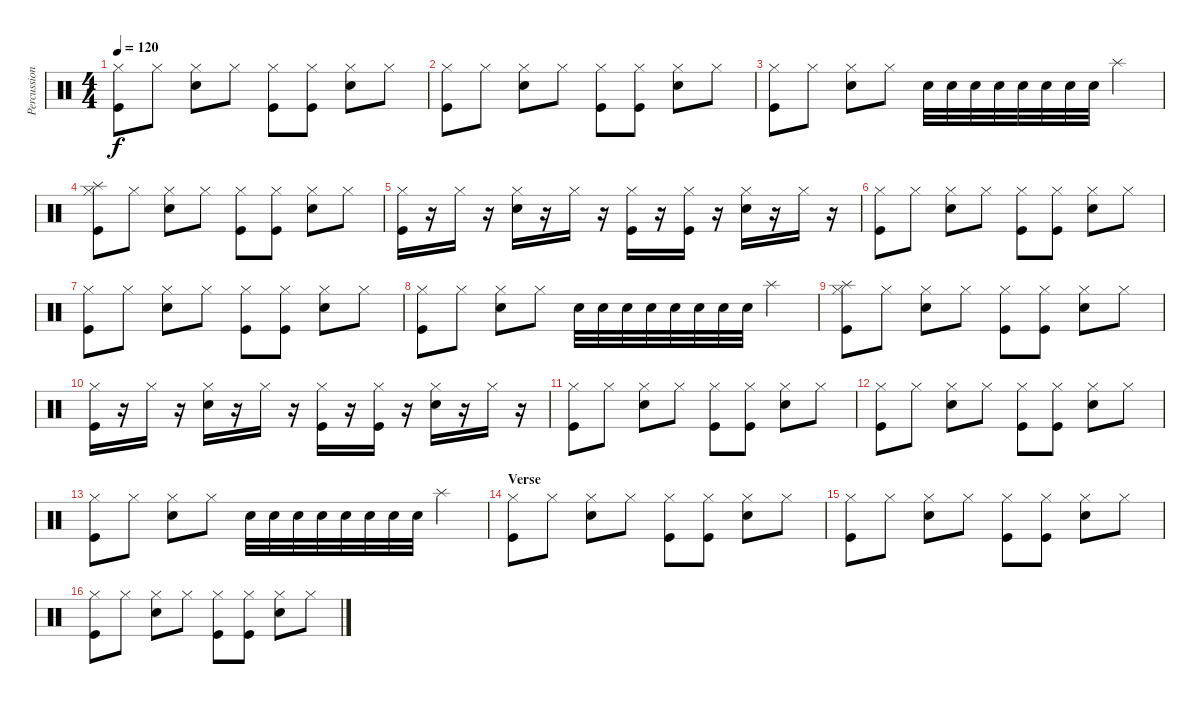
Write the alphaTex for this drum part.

\track ("Percussion" "Percussion") {instrument percussion}
\staff {score}
\articulation defaults
\ts (4 4)
\tempo 120
\clef neutral
\ks c
("Hi-Hat (closed)" "Kick (hit)").8{dy f} "Hi-Hat (closed)".8 ("Hi-Hat (closed)" "Snare (hit) 2").8 "Hi-Hat (closed)".8 ("Hi-Hat (closed)" "Kick (hit)").8 ("Hi-Hat (closed)" "Kick (hit)").8 ("Hi-Hat (closed)" "Snare (hit) 2").8 "Hi-Hat (closed)".8 |
("Hi-Hat (closed)" "Kick (hit)").8 "Hi-Hat (closed)".8 ("Hi-Hat (closed)" "Snare (hit) 2").8 "Hi-Hat (closed)".8 ("Hi-Hat (closed)" "Kick (hit)").8 ("Hi-Hat (closed)" "Kick (hit)").8 ("Hi-Hat (closed)" "Snare (hit) 2").8 "Hi-Hat (closed)".8 |
("Hi-Hat (closed)" "Kick (hit)").8 "Hi-Hat (closed)".8 ("Hi-Hat (closed)" "Snare (hit) 2").8 "Hi-Hat (closed)".8 "Snare (hit) 2".32 "Snare (hit) 2".32 "Snare (hit) 2".32 "Snare (hit) 2".32 "Snare (hit) 2".32 "Snare (hit) 2".32 "Snare (hit) 2".32 "Snare (hit) 2".32 "Splash (hit)".4 |
("Hi-Hat (closed)" "Kick (hit)" "Splash (hit)").8 "Hi-Hat (closed)".8 ("Hi-Hat (closed)" "Snare (hit) 2").8 "Hi-Hat (closed)".8 ("Hi-Hat (closed)" "Kick (hit)").8 ("Hi-Hat (closed)" "Kick (hit)").8 ("Hi-Hat (closed)" "Snare (hit) 2").8 "Hi-Hat (closed)".8 |
("Hi-Hat (closed)" "Kick (hit)").16 r.16 "Hi-Hat (closed)".16 r.16 ("Hi-Hat (closed)" "Snare (hit) 2").16 r.16 "Hi-Hat (closed)".16 r.16 ("Hi-Hat (closed)" "Kick (hit)").16 r.16 ("Hi-Hat (closed)" "Kick (hit)").16 r.16 ("Hi-Hat (closed)" "Snare (hit) 2").16 r.16 "Hi-Hat (closed)".16 r.16 |
("Hi-Hat (closed)" "Kick (hit)").8 "Hi-Hat (closed)".8 ("Hi-Hat (closed)" "Snare (hit) 2").8 "Hi-Hat (closed)".8 ("Hi-Hat (closed)" "Kick (hit)").8 ("Hi-Hat (closed)" "Kick (hit)").8 ("Hi-Hat (closed)" "Snare (hit) 2").8 "Hi-Hat (closed)".8 |
("Hi-Hat (closed)" "Kick (hit)").8 "Hi-Hat (closed)".8 ("Hi-Hat (closed)" "Snare (hit) 2").8 "Hi-Hat (closed)".8 ("Hi-Hat (closed)" "Kick (hit)").8 ("Hi-Hat (closed)" "Kick (hit)").8 ("Hi-Hat (closed)" "Snare (hit) 2").8 "Hi-Hat (closed)".8 |
("Hi-Hat (closed)" "Kick (hit)").8 "Hi-Hat (closed)".8 ("Hi-Hat (closed)" "Snare (hit) 2").8 "Hi-Hat (closed)".8 "Snare (hit) 2".32 "Snare (hit) 2".32 "Snare (hit) 2".32 "Snare (hit) 2".32 "Snare (hit) 2".32 "Snare (hit) 2".32 "Snare (hit) 2".32 "Snare (hit) 2".32 "Splash (hit)".4 |
("Hi-Hat (closed)" "Kick (hit)" "Splash (hit)").8 "Hi-Hat (closed)".8 ("Hi-Hat (closed)" "Snare (hit) 2").8 "Hi-Hat (closed)".8 ("Hi-Hat (closed)" "Kick (hit)").8 ("Hi-Hat (closed)" "Kick (hit)").8 ("Hi-Hat (closed)" "Snare (hit) 2").8 "Hi-Hat (closed)".8 |
("Hi-Hat (closed)" "Kick (hit)").16 r.16 "Hi-Hat (closed)".16 r.16 ("Hi-Hat (closed)" "Snare (hit) 2").16 r.16 "Hi-Hat (closed)".16 r.16 ("Hi-Hat (closed)" "Kick (hit)").16 r.16 ("Hi-Hat (closed)" "Kick (hit)").16 r.16 ("Hi-Hat (closed)" "Snare (hit) 2").16 r.16 "Hi-Hat (closed)".16 r.16 |
("Hi-Hat (closed)" "Kick (hit)").8 "Hi-Hat (closed)".8 ("Hi-Hat (closed)" "Snare (hit) 2").8 "Hi-Hat (closed)".8 ("Hi-Hat (closed)" "Kick (hit)").8 ("Hi-Hat (closed)" "Kick (hit)").8 ("Hi-Hat (closed)" "Snare (hit) 2").8 "Hi-Hat (closed)".8 |
("Hi-Hat (closed)" "Kick (hit)").8 "Hi-Hat (closed)".8 ("Hi-Hat (closed)" "Snare (hit) 2").8 "Hi-Hat (closed)".8 ("Hi-Hat (closed)" "Kick (hit)").8 ("Hi-Hat (closed)" "Kick (hit)").8 ("Hi-Hat (closed)" "Snare (hit) 2").8 "Hi-Hat (closed)".8 |
("Hi-Hat (closed)" "Kick (hit)").8 "Hi-Hat (closed)".8 ("Hi-Hat (closed)" "Snare (hit) 2").8 "Hi-Hat (closed)".8 "Snare (hit) 2".32 "Snare (hit) 2".32 "Snare (hit) 2".32 "Snare (hit) 2".32 "Snare (hit) 2".32 "Snare (hit) 2".32 "Snare (hit) 2".32 "Snare (hit) 2".32 "Splash (hit)".4 |
\section ("" "Verse")
("Hi-Hat (closed)" "Kick (hit)").8 "Hi-Hat (closed)".8 ("Hi-Hat (closed)" "Snare (hit) 2").8 "Hi-Hat (closed)".8 ("Hi-Hat (closed)" "Kick (hit)").8 ("Hi-Hat (closed)" "Kick (hit)").8 ("Hi-Hat (closed)" "Snare (hit) 2").8 "Hi-Hat (closed)".8 |
("Hi-Hat (closed)" "Kick (hit)").8 "Hi-Hat (closed)".8 ("Hi-Hat (closed)" "Snare (hit) 2").8 "Hi-Hat (closed)".8 ("Hi-Hat (closed)" "Kick (hit)").8 ("Hi-Hat (closed)" "Kick (hit)").8 ("Hi-Hat (closed)" "Snare (hit) 2").8 "Hi-Hat (closed)".8 |
("Hi-Hat (closed)" "Kick (hit)").8 "Hi-Hat (closed)".8 ("Hi-Hat (closed)" "Snare (hit) 2").8 "Hi-Hat (closed)".8 ("Hi-Hat (closed)" "Kick (hit)").8 ("Hi-Hat (closed)" "Kick (hit)").8 ("Hi-Hat (closed)" "Snare (hit) 2").8 "Hi-Hat (closed)".8
